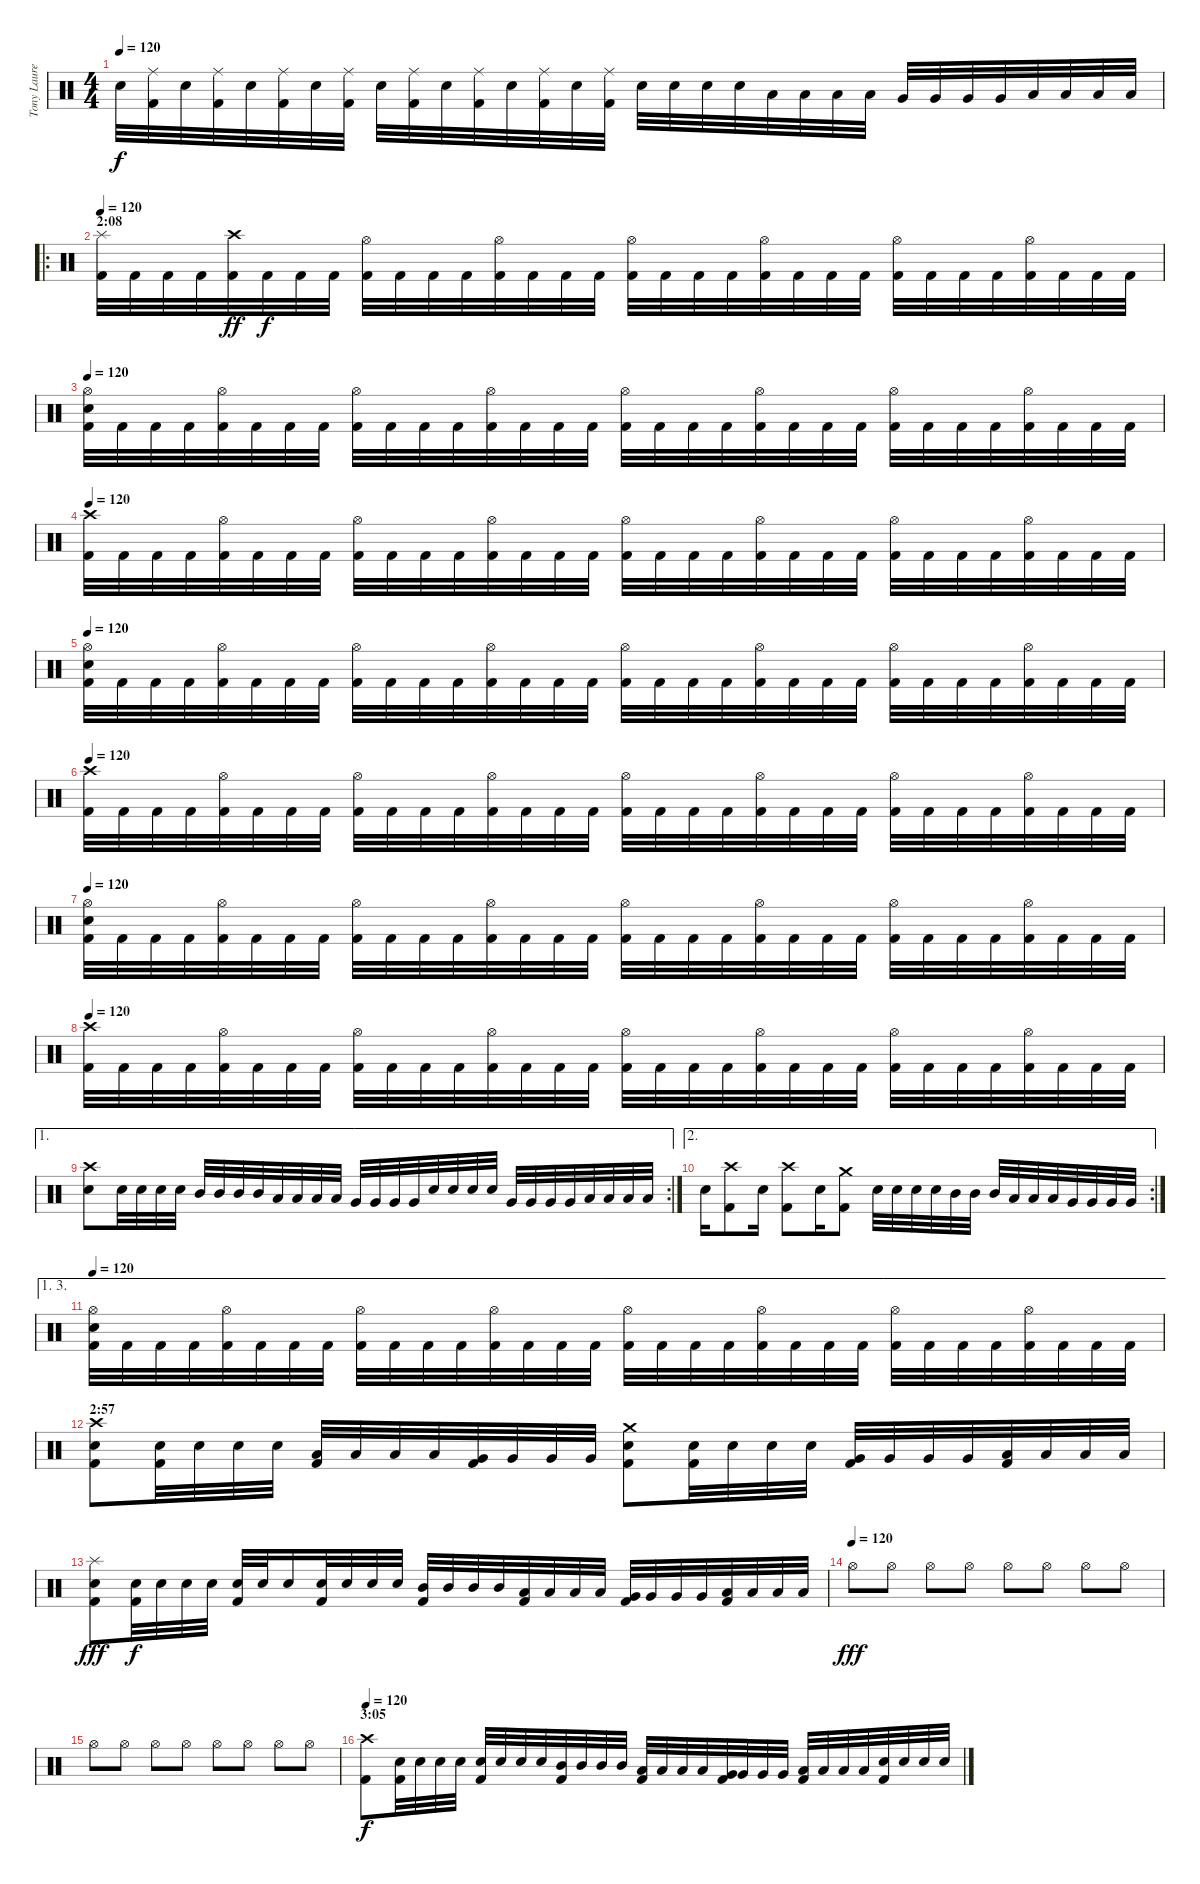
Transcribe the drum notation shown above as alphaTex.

\track ("Tony Laureano" "Tony Laure") {instrument percussion}
\staff {score}
\articulation defaults
\ts (4 4)
\tempo 120
\clef neutral
\ks c "Electric Snare (hit)".32{dy f}
("Ride (middle)" "Kick (hit) 2").32 "Electric Snare (hit)".32 ("Ride (middle)" "Kick (hit) 2").32 "Electric Snare (hit)".32 ("Ride (middle)" "Kick (hit) 2").32 "Electric Snare (hit)".32 ("Ride (middle)" "Kick (hit) 2").32 "Electric Snare (hit)".32 ("Ride (middle)" "Kick (hit) 2").32 "Electric Snare (hit)".32 ("Ride (middle)" "Kick (hit) 2").32 "Electric Snare (hit)".32 ("Ride (middle)" "Kick (hit) 2").32 "Electric Snare (hit)".32 ("Ride (middle)" "Kick (hit) 2").32 "Electric Snare (hit)".32 "Electric Snare (hit)".32 "Electric Snare (hit)".32 "Electric Snare (hit)".32 "Low Tom (hit)".32 "Low Tom (hit)".32 "Low Tom (hit)".32 "Low Tom (hit)".32 "Very Low Tom (hit)".32 "Very Low Tom (hit)".32 "Very Low Tom (hit)".32 "Very Low Tom (hit)".32 "Low Floor Tom (hit)".32 "Low Floor Tom (hit)".32 "Low Floor Tom (hit)".32 "Low Floor Tom (hit)".32 |
\ro
\section ("" "2:08")
\tempo 120
("Splash (hit)" "Kick (hit) 2").32 "Kick (hit) 2".32 "Kick (hit) 2".32 "Kick (hit) 2".32 ("Crash high (hit)" "Kick (hit) 2").32{dy ff} "Kick (hit) 2".32{dy f} "Kick (hit) 2".32 "Kick (hit) 2".32 ("Hi-Hat (open)" "Kick (hit) 2").32 "Kick (hit) 2".32 "Kick (hit) 2".32 "Kick (hit) 2".32 ("Hi-Hat (open)" "Kick (hit) 2").32 "Kick (hit) 2".32 "Kick (hit) 2".32 "Kick (hit) 2".32 ("Hi-Hat (open)" "Kick (hit) 2").32 "Kick (hit) 2".32 "Kick (hit) 2".32 "Kick (hit) 2".32 ("Hi-Hat (open)" "Kick (hit) 2").32 "Kick (hit) 2".32 "Kick (hit) 2".32 "Kick (hit) 2".32 ("Hi-Hat (open)" "Kick (hit) 2").32 "Kick (hit) 2".32 "Kick (hit) 2".32 "Kick (hit) 2".32 ("Hi-Hat (open)" "Kick (hit) 2").32 "Kick (hit) 2".32 "Kick (hit) 2".32 "Kick (hit) 2".32 |
\tempo 120
("Hi-Hat (open)" "Electric Snare (hit)" "Kick (hit) 2").32 "Kick (hit) 2".32 "Kick (hit) 2".32 "Kick (hit) 2".32 ("Hi-Hat (open)" "Kick (hit) 2").32 "Kick (hit) 2".32 "Kick (hit) 2".32 "Kick (hit) 2".32 ("Hi-Hat (open)" "Kick (hit) 2").32 "Kick (hit) 2".32 "Kick (hit) 2".32 "Kick (hit) 2".32 ("Hi-Hat (open)" "Kick (hit) 2").32 "Kick (hit) 2".32 "Kick (hit) 2".32 "Kick (hit) 2".32 ("Hi-Hat (open)" "Kick (hit) 2").32 "Kick (hit) 2".32 "Kick (hit) 2".32 "Kick (hit) 2".32 ("Hi-Hat (open)" "Kick (hit) 2").32 "Kick (hit) 2".32 "Kick (hit) 2".32 "Kick (hit) 2".32 ("Hi-Hat (open)" "Kick (hit) 2").32 "Kick (hit) 2".32 "Kick (hit) 2".32 "Kick (hit) 2".32 ("Hi-Hat (open)" "Kick (hit) 2").32 "Kick (hit) 2".32 "Kick (hit) 2".32 "Kick (hit) 2".32 |
\tempo 120
("Crash high (hit)" "Kick (hit) 2").32 "Kick (hit) 2".32 "Kick (hit) 2".32 "Kick (hit) 2".32 ("Hi-Hat (open)" "Kick (hit) 2").32 "Kick (hit) 2".32 "Kick (hit) 2".32 "Kick (hit) 2".32 ("Hi-Hat (open)" "Kick (hit) 2").32 "Kick (hit) 2".32 "Kick (hit) 2".32 "Kick (hit) 2".32 ("Hi-Hat (open)" "Kick (hit) 2").32 "Kick (hit) 2".32 "Kick (hit) 2".32 "Kick (hit) 2".32 ("Hi-Hat (open)" "Kick (hit) 2").32 "Kick (hit) 2".32 "Kick (hit) 2".32 "Kick (hit) 2".32 ("Hi-Hat (open)" "Kick (hit) 2").32 "Kick (hit) 2".32 "Kick (hit) 2".32 "Kick (hit) 2".32 ("Hi-Hat (open)" "Kick (hit) 2").32 "Kick (hit) 2".32 "Kick (hit) 2".32 "Kick (hit) 2".32 ("Hi-Hat (open)" "Kick (hit) 2").32 "Kick (hit) 2".32 "Kick (hit) 2".32 "Kick (hit) 2".32 |
\tempo 120
("Hi-Hat (open)" "Electric Snare (hit)" "Kick (hit) 2").32 "Kick (hit) 2".32 "Kick (hit) 2".32 "Kick (hit) 2".32 ("Hi-Hat (open)" "Kick (hit) 2").32 "Kick (hit) 2".32 "Kick (hit) 2".32 "Kick (hit) 2".32 ("Hi-Hat (open)" "Kick (hit) 2").32 "Kick (hit) 2".32 "Kick (hit) 2".32 "Kick (hit) 2".32 ("Hi-Hat (open)" "Kick (hit) 2").32 "Kick (hit) 2".32 "Kick (hit) 2".32 "Kick (hit) 2".32 ("Hi-Hat (open)" "Kick (hit) 2").32 "Kick (hit) 2".32 "Kick (hit) 2".32 "Kick (hit) 2".32 ("Hi-Hat (open)" "Kick (hit) 2").32 "Kick (hit) 2".32 "Kick (hit) 2".32 "Kick (hit) 2".32 ("Hi-Hat (open)" "Kick (hit) 2").32 "Kick (hit) 2".32 "Kick (hit) 2".32 "Kick (hit) 2".32 ("Hi-Hat (open)" "Kick (hit) 2").32 "Kick (hit) 2".32 "Kick (hit) 2".32 "Kick (hit) 2".32 |
\tempo 120
("Crash high (hit)" "Kick (hit) 2").32 "Kick (hit) 2".32 "Kick (hit) 2".32 "Kick (hit) 2".32 ("Hi-Hat (open)" "Kick (hit) 2").32 "Kick (hit) 2".32 "Kick (hit) 2".32 "Kick (hit) 2".32 ("Hi-Hat (open)" "Kick (hit) 2").32 "Kick (hit) 2".32 "Kick (hit) 2".32 "Kick (hit) 2".32 ("Hi-Hat (open)" "Kick (hit) 2").32 "Kick (hit) 2".32 "Kick (hit) 2".32 "Kick (hit) 2".32 ("Hi-Hat (open)" "Kick (hit) 2").32 "Kick (hit) 2".32 "Kick (hit) 2".32 "Kick (hit) 2".32 ("Hi-Hat (open)" "Kick (hit) 2").32 "Kick (hit) 2".32 "Kick (hit) 2".32 "Kick (hit) 2".32 ("Hi-Hat (open)" "Kick (hit) 2").32 "Kick (hit) 2".32 "Kick (hit) 2".32 "Kick (hit) 2".32 ("Hi-Hat (open)" "Kick (hit) 2").32 "Kick (hit) 2".32 "Kick (hit) 2".32 "Kick (hit) 2".32 |
\tempo 120
("Hi-Hat (open)" "Electric Snare (hit)" "Kick (hit) 2").32 "Kick (hit) 2".32 "Kick (hit) 2".32 "Kick (hit) 2".32 ("Hi-Hat (open)" "Kick (hit) 2").32 "Kick (hit) 2".32 "Kick (hit) 2".32 "Kick (hit) 2".32 ("Hi-Hat (open)" "Kick (hit) 2").32 "Kick (hit) 2".32 "Kick (hit) 2".32 "Kick (hit) 2".32 ("Hi-Hat (open)" "Kick (hit) 2").32 "Kick (hit) 2".32 "Kick (hit) 2".32 "Kick (hit) 2".32 ("Hi-Hat (open)" "Kick (hit) 2").32 "Kick (hit) 2".32 "Kick (hit) 2".32 "Kick (hit) 2".32 ("Hi-Hat (open)" "Kick (hit) 2").32 "Kick (hit) 2".32 "Kick (hit) 2".32 "Kick (hit) 2".32 ("Hi-Hat (open)" "Kick (hit) 2").32 "Kick (hit) 2".32 "Kick (hit) 2".32 "Kick (hit) 2".32 ("Hi-Hat (open)" "Kick (hit) 2").32 "Kick (hit) 2".32 "Kick (hit) 2".32 "Kick (hit) 2".32 |
\tempo 120
("Crash high (hit)" "Kick (hit) 2").32 "Kick (hit) 2".32 "Kick (hit) 2".32 "Kick (hit) 2".32 ("Hi-Hat (open)" "Kick (hit) 2").32 "Kick (hit) 2".32 "Kick (hit) 2".32 "Kick (hit) 2".32 ("Hi-Hat (open)" "Kick (hit) 2").32 "Kick (hit) 2".32 "Kick (hit) 2".32 "Kick (hit) 2".32 ("Hi-Hat (open)" "Kick (hit) 2").32 "Kick (hit) 2".32 "Kick (hit) 2".32 "Kick (hit) 2".32 ("Hi-Hat (open)" "Kick (hit) 2").32 "Kick (hit) 2".32 "Kick (hit) 2".32 "Kick (hit) 2".32 ("Hi-Hat (open)" "Kick (hit) 2").32 "Kick (hit) 2".32 "Kick (hit) 2".32 "Kick (hit) 2".32 ("Hi-Hat (open)" "Kick (hit) 2").32 "Kick (hit) 2".32 "Kick (hit) 2".32 "Kick (hit) 2".32 ("Hi-Hat (open)" "Kick (hit) 2").32 "Kick (hit) 2".32 "Kick (hit) 2".32 "Kick (hit) 2".32 |
\ae 1
\rc 2
("Crash high (hit)" "Electric Snare (hit)").8 "Electric Snare (hit)".32 "Electric Snare (hit)".32 "Electric Snare (hit)".32 "Electric Snare (hit)".32 "Mid Tom (hit)".32 "Mid Tom (hit)".32 "Mid Tom (hit)".32 "Mid Tom (hit)".32 "Low Tom (hit)".32 "Low Tom (hit)".32 "Low Tom (hit)".32 "Low Tom (hit)".32 "Very Low Tom (hit)".32 "Very Low Tom (hit)".32 "Very Low Tom (hit)".32 "Very Low Tom (hit)".32 "Electric Snare (hit)".32 "Electric Snare (hit)".32 "Electric Snare (hit)".32 "Electric Snare (hit)".32 "Very Low Tom (hit)".32 "Very Low Tom (hit)".32 "Very Low Tom (hit)".32 "Very Low Tom (hit)".32 "Low Floor Tom (hit)".32 "Low Floor Tom (hit)".32 "Low Floor Tom (hit)".32 "Low Floor Tom (hit)".32 |
\ae 2
\rc 2 "Electric Snare (hit)".16
("Crash high (hit)" "Kick (hit) 2").8 "Electric Snare (hit)".16 ("Crash high (hit)" "Kick (hit) 2").8 "Electric Snare (hit)".16 ("Crash medium (hit)" "Kick (hit) 2").8 "Electric Snare (hit)".32 "Electric Snare (hit)".32 "Electric Snare (hit)".32 "Electric Snare (hit)".32 "Mid Tom (hit)".32 "Mid Tom (hit)".32 "Mid Tom (hit)".32 "Low Tom (hit)".32 "Low Tom (hit)".32 "Low Tom (hit)".32 "Very Low Tom (hit)".32 "Very Low Tom (hit)".32 "Very Low Tom (hit)".32 "Very Low Tom (hit)".32 |
\ae (1 3)
\tempo 120
("Hi-Hat (open)" "Electric Snare (hit)" "Kick (hit) 2").32 "Kick (hit) 2".32 "Kick (hit) 2".32 "Kick (hit) 2".32 ("Hi-Hat (open)" "Kick (hit) 2").32 "Kick (hit) 2".32 "Kick (hit) 2".32 "Kick (hit) 2".32 ("Hi-Hat (open)" "Kick (hit) 2").32 "Kick (hit) 2".32 "Kick (hit) 2".32 "Kick (hit) 2".32 ("Hi-Hat (open)" "Kick (hit) 2").32 "Kick (hit) 2".32 "Kick (hit) 2".32 "Kick (hit) 2".32 ("Hi-Hat (open)" "Kick (hit) 2").32 "Kick (hit) 2".32 "Kick (hit) 2".32 "Kick (hit) 2".32 ("Hi-Hat (open)" "Kick (hit) 2").32 "Kick (hit) 2".32 "Kick (hit) 2".32 "Kick (hit) 2".32 ("Hi-Hat (open)" "Kick (hit) 2").32 "Kick (hit) 2".32 "Kick (hit) 2".32 "Kick (hit) 2".32 ("Hi-Hat (open)" "Kick (hit) 2").32 "Kick (hit) 2".32 "Kick (hit) 2".32 "Kick (hit) 2".32 |
\section ("" "2:57")
("Crash high (hit)" "Electric Snare (hit)" "Kick (hit) 2").8 ("Electric Snare (hit)" "Kick (hit) 2").32 "Electric Snare (hit)".32 "Electric Snare (hit)".32 "Electric Snare (hit)".32 ("Low Tom (hit)" "Kick (hit) 2").32 "Low Tom (hit)".32 "Low Tom (hit)".32 "Low Tom (hit)".32 ("Very Low Tom (hit)" "Kick (hit) 2").32 "Very Low Tom (hit)".32 "Very Low Tom (hit)".32 "Very Low Tom (hit)".32 ("Crash medium (hit)" "Electric Snare (hit)" "Kick (hit) 2").8 ("Electric Snare (hit)" "Kick (hit) 2").32 "Electric Snare (hit)".32 "Electric Snare (hit)".32 "Electric Snare (hit)".32 ("Very Low Tom (hit)" "Kick (hit) 2").32 "Very Low Tom (hit)".32 "Very Low Tom (hit)".32 "Very Low Tom (hit)".32 ("Low Floor Tom (hit)" "Kick (hit) 2").32 "Low Floor Tom (hit)".32 "Low Floor Tom (hit)".32 "Low Floor Tom (hit)".32 |
("Splash (hit)" "Electric Snare (hit)" "Kick (hit) 2").8{dy fff} ("Electric Snare (hit)" "Kick (hit) 2").32{dy f} "Electric Snare (hit)".32 "Electric Snare (hit)".32 "Electric Snare (hit)".32 ("Electric Snare (hit)" "Kick (hit) 2").32 "Electric Snare (hit)".32 "Electric Snare (hit)".16 ("Electric Snare (hit)" "Kick (hit) 2").32 "Electric Snare (hit)".32 "Electric Snare (hit)".32 "Electric Snare (hit)".32 ("Mid Tom (hit)" "Kick (hit) 2").32 "Mid Tom (hit)".32 "Mid Tom (hit)".32 "Mid Tom (hit)".32 ("Low Tom (hit)" "Kick (hit) 2").32 "Low Tom (hit)".32 "Low Tom (hit)".32 "Low Tom (hit)".32 ("Very Low Tom (hit)" "Kick (hit) 2").32 "Very Low Tom (hit)".32 "Very Low Tom (hit)".32 "Very Low Tom (hit)".32 ("Low Floor Tom (hit)" "Kick (hit) 2").32 "Low Floor Tom (hit)".32 "Low Floor Tom (hit)".32 "Low Floor Tom (hit)".32 |
\tempo (120)
"Hi-Hat (open)".8{dy fff} "Hi-Hat (open)".8 "Hi-Hat (open)".8 "Hi-Hat (open)".8 "Hi-Hat (open)".8 "Hi-Hat (open)".8 "Hi-Hat (open)".8 "Hi-Hat (open)".8 |
"Hi-Hat (open)".8 "Hi-Hat (open)".8 "Hi-Hat (open)".8 "Hi-Hat (open)".8 "Hi-Hat (open)".8 "Hi-Hat (open)".8 "Hi-Hat (open)".8 "Hi-Hat (open)".8 |
\section ("" "3:05")
\tempo 120
("Crash high (hit)" "Kick (hit) 2").8{dy f} ("Electric Snare (hit)" "Kick (hit) 2").32 "Electric Snare (hit)".32 "Electric Snare (hit)".32 "Electric Snare (hit)".32 ("Electric Snare (hit)" "Kick (hit) 2").32 "Electric Snare (hit)".32 "Electric Snare (hit)".32 "Electric Snare (hit)".32 ("Mid Tom (hit)" "Kick (hit) 2").32 "Mid Tom (hit)".32 "Mid Tom (hit)".32 "Mid Tom (hit)".32 ("Low Tom (hit)" "Kick (hit) 2").32 "Low Tom (hit)".32 "Low Tom (hit)".32 "Low Tom (hit)".32 ("Very Low Tom (hit)" "Kick (hit) 2").32 "Very Low Tom (hit)".32 "Very Low Tom (hit)".32 "Very Low Tom (hit)".32 ("Low Floor Tom (hit)" "Kick (hit) 2").32 "Low Floor Tom (hit)".32 "Low Floor Tom (hit)".32 "Low Floor Tom (hit)".32 ("Electric Snare (hit)" "Kick (hit) 2").32 "Electric Snare (hit)".32 "Electric Snare (hit)".32 "Electric Snare (hit)".32
